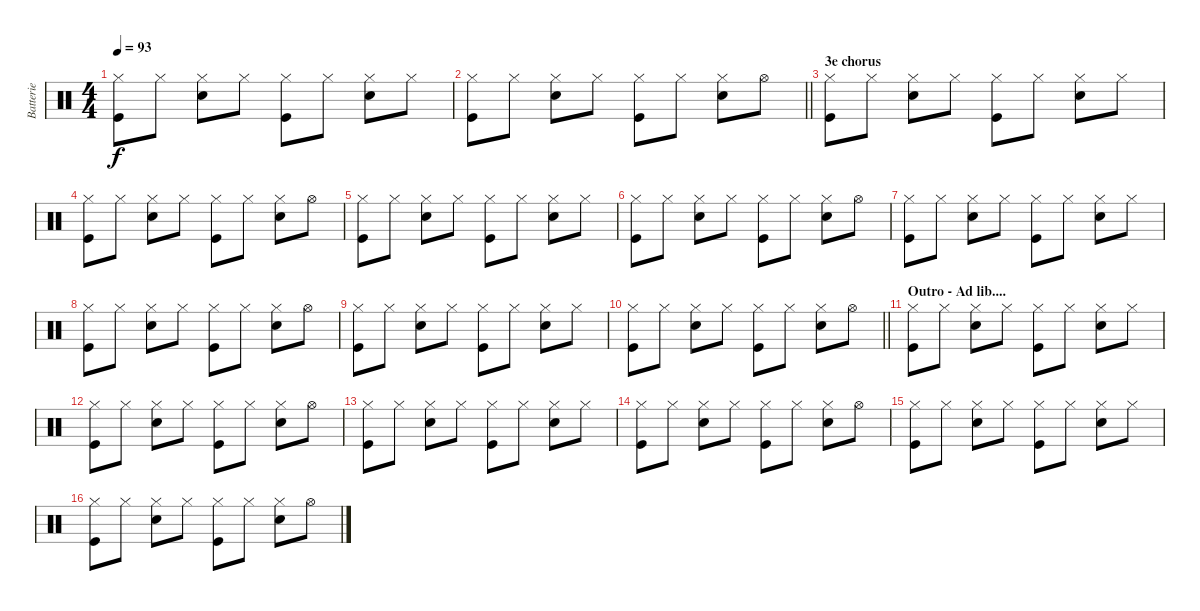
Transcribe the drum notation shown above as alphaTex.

\track ("Batterie" "Batterie") {instrument percussion}
\staff {score}
\articulation defaults
\ts (4 4)
\tempo 93
\clef neutral
\ks c
("Hi-Hat (closed)" "Kick (hit)").8{dy f} "Hi-Hat (closed)".8 ("Hi-Hat (closed)" "Snare (hit) 2").8 "Hi-Hat (closed)".8 ("Hi-Hat (closed)" "Kick (hit)").8 "Hi-Hat (closed)".8 ("Hi-Hat (closed)" "Snare (hit) 2").8 "Hi-Hat (closed)".8 |
\barLineRight lightlight
("Hi-Hat (closed)" "Kick (hit)").8 "Hi-Hat (closed)".8 ("Hi-Hat (closed)" "Snare (hit) 2").8 "Hi-Hat (closed)".8 ("Hi-Hat (closed)" "Kick (hit)").8 "Hi-Hat (closed)".8 ("Hi-Hat (closed)" "Snare (hit) 2").8 "Hi-Hat (open)".8 |
\section ("" "3e chorus")
("Hi-Hat (closed)" "Kick (hit)").8 "Hi-Hat (closed)".8 ("Hi-Hat (closed)" "Snare (hit) 2").8 "Hi-Hat (closed)".8 ("Hi-Hat (closed)" "Kick (hit)").8 "Hi-Hat (closed)".8 ("Hi-Hat (closed)" "Snare (hit) 2").8 "Hi-Hat (closed)".8 |
("Hi-Hat (closed)" "Kick (hit)").8 "Hi-Hat (closed)".8 ("Hi-Hat (closed)" "Snare (hit) 2").8 "Hi-Hat (closed)".8 ("Hi-Hat (closed)" "Kick (hit)").8 "Hi-Hat (closed)".8 ("Hi-Hat (closed)" "Snare (hit) 2").8 "Hi-Hat (open)".8 |
("Hi-Hat (closed)" "Kick (hit)").8 "Hi-Hat (closed)".8 ("Hi-Hat (closed)" "Snare (hit) 2").8 "Hi-Hat (closed)".8 ("Hi-Hat (closed)" "Kick (hit)").8 "Hi-Hat (closed)".8 ("Hi-Hat (closed)" "Snare (hit) 2").8 "Hi-Hat (closed)".8 |
("Hi-Hat (closed)" "Kick (hit)").8 "Hi-Hat (closed)".8 ("Hi-Hat (closed)" "Snare (hit) 2").8 "Hi-Hat (closed)".8 ("Hi-Hat (closed)" "Kick (hit)").8 "Hi-Hat (closed)".8 ("Hi-Hat (closed)" "Snare (hit) 2").8 "Hi-Hat (open)".8 |
("Hi-Hat (closed)" "Kick (hit)").8 "Hi-Hat (closed)".8 ("Hi-Hat (closed)" "Snare (hit) 2").8 "Hi-Hat (closed)".8 ("Hi-Hat (closed)" "Kick (hit)").8 "Hi-Hat (closed)".8 ("Hi-Hat (closed)" "Snare (hit) 2").8 "Hi-Hat (closed)".8 |
("Hi-Hat (closed)" "Kick (hit)").8 "Hi-Hat (closed)".8 ("Hi-Hat (closed)" "Snare (hit) 2").8 "Hi-Hat (closed)".8 ("Hi-Hat (closed)" "Kick (hit)").8 "Hi-Hat (closed)".8 ("Hi-Hat (closed)" "Snare (hit) 2").8 "Hi-Hat (open)".8 |
("Hi-Hat (closed)" "Kick (hit)").8 "Hi-Hat (closed)".8 ("Hi-Hat (closed)" "Snare (hit) 2").8 "Hi-Hat (closed)".8 ("Hi-Hat (closed)" "Kick (hit)").8 "Hi-Hat (closed)".8 ("Hi-Hat (closed)" "Snare (hit) 2").8 "Hi-Hat (closed)".8 |
\barLineRight lightlight
("Hi-Hat (closed)" "Kick (hit)").8 "Hi-Hat (closed)".8 ("Hi-Hat (closed)" "Snare (hit) 2").8 "Hi-Hat (closed)".8 ("Hi-Hat (closed)" "Kick (hit)").8 "Hi-Hat (closed)".8 ("Hi-Hat (closed)" "Snare (hit) 2").8 "Hi-Hat (open)".8 |
\section ("" "Outro - Ad lib....")
("Hi-Hat (closed)" "Kick (hit)").8 "Hi-Hat (closed)".8 ("Hi-Hat (closed)" "Snare (hit) 2").8 "Hi-Hat (closed)".8 ("Hi-Hat (closed)" "Kick (hit)").8 "Hi-Hat (closed)".8 ("Hi-Hat (closed)" "Snare (hit) 2").8 "Hi-Hat (closed)".8 |
("Hi-Hat (closed)" "Kick (hit)").8 "Hi-Hat (closed)".8 ("Hi-Hat (closed)" "Snare (hit) 2").8 "Hi-Hat (closed)".8 ("Hi-Hat (closed)" "Kick (hit)").8 "Hi-Hat (closed)".8 ("Hi-Hat (closed)" "Snare (hit) 2").8 "Hi-Hat (open)".8 |
("Hi-Hat (closed)" "Kick (hit)").8 "Hi-Hat (closed)".8 ("Hi-Hat (closed)" "Snare (hit) 2").8 "Hi-Hat (closed)".8 ("Hi-Hat (closed)" "Kick (hit)").8 "Hi-Hat (closed)".8 ("Hi-Hat (closed)" "Snare (hit) 2").8 "Hi-Hat (closed)".8 |
("Hi-Hat (closed)" "Kick (hit)").8 "Hi-Hat (closed)".8 ("Hi-Hat (closed)" "Snare (hit) 2").8 "Hi-Hat (closed)".8 ("Hi-Hat (closed)" "Kick (hit)").8 "Hi-Hat (closed)".8 ("Hi-Hat (closed)" "Snare (hit) 2").8 "Hi-Hat (open)".8 |
("Hi-Hat (closed)" "Kick (hit)").8 "Hi-Hat (closed)".8 ("Hi-Hat (closed)" "Snare (hit) 2").8 "Hi-Hat (closed)".8 ("Hi-Hat (closed)" "Kick (hit)").8 "Hi-Hat (closed)".8 ("Hi-Hat (closed)" "Snare (hit) 2").8 "Hi-Hat (closed)".8 |
("Hi-Hat (closed)" "Kick (hit)").8 "Hi-Hat (closed)".8 ("Hi-Hat (closed)" "Snare (hit) 2").8 "Hi-Hat (closed)".8 ("Hi-Hat (closed)" "Kick (hit)").8 "Hi-Hat (closed)".8 ("Hi-Hat (closed)" "Snare (hit) 2").8 "Hi-Hat (open)".8
